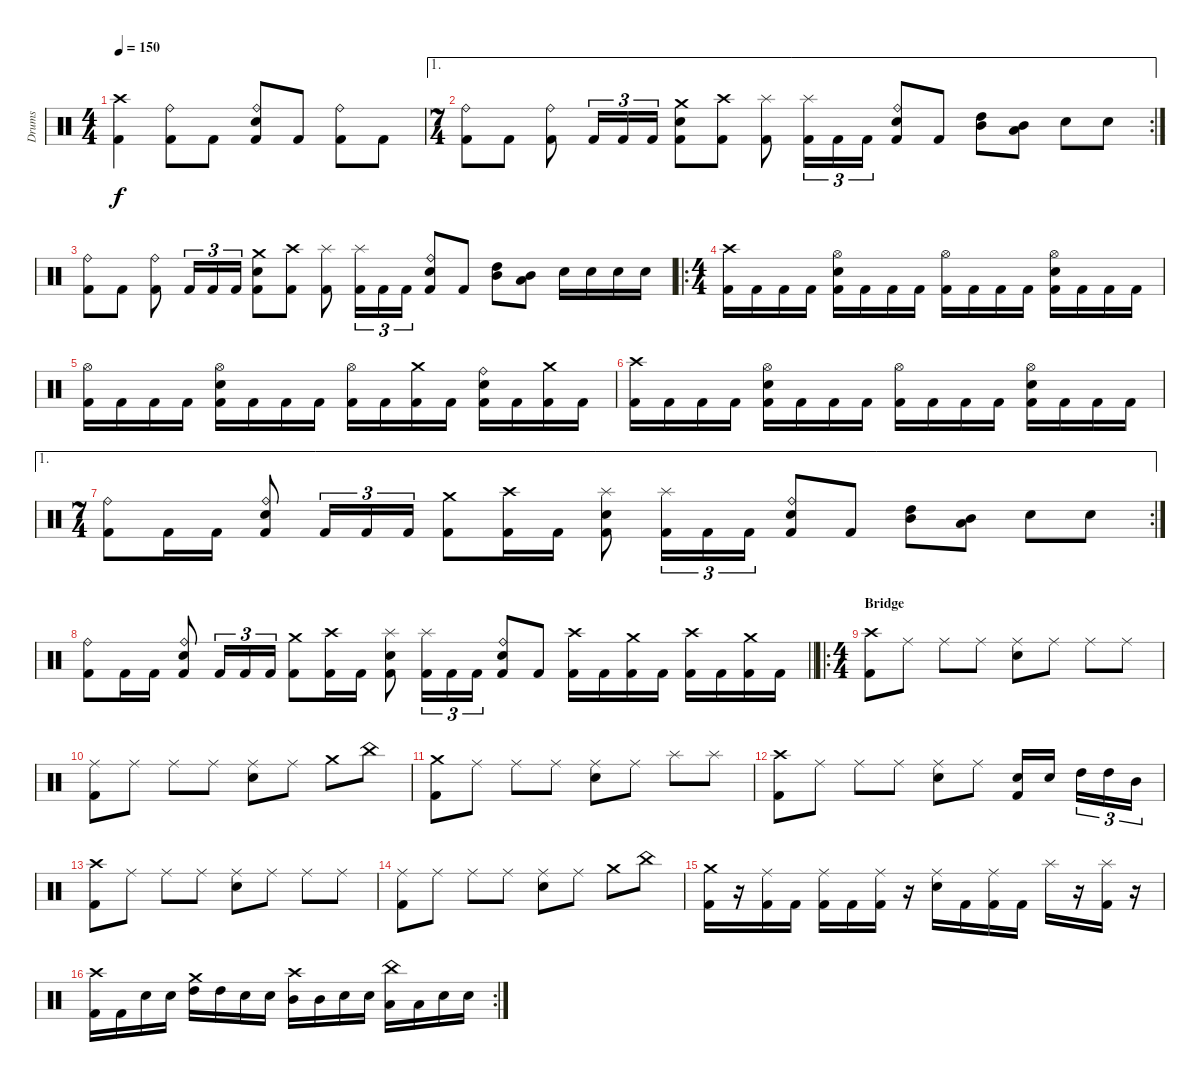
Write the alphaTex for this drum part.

\track ("Drums" "Drums") {instrument percussion}
\staff {score}
\articulation defaults
\ts (4 4)
\tempo 150
\clef neutral
\ks c
("Crash high (hit)" "Kick (hit) 2").4{dy f} ("Ride (bell)" "Kick (hit) 2").8 "Kick (hit) 2".8 ("Ride (bell)" "Snare (hit) 2" "Kick (hit) 2").8 "Kick (hit) 2".8 ("Ride (bell)" "Kick (hit) 2").8 "Kick (hit) 2".8 |
\ae 1
\rc 2
\ts (7 4)
("Ride (bell)" "Kick (hit) 2").8 "Kick (hit) 2".8 ("Ride (bell)" "Kick (hit) 2").8 "Kick (hit) 2".16{tu (3 2)} "Kick (hit) 2".16{tu (3 2)} "Kick (hit) 2".16{tu (3 2)} ("Crash medium (hit)" "Snare (hit) 2" "Kick (hit) 2").8 ("Crash high (hit)" "Kick (hit) 2").8 ("Splash (hit)" "Kick (hit) 2").8 ("Splash (hit)" "Kick (hit) 2").16{tu (3 2)} "Kick (hit) 2".16{tu (3 2)} "Kick (hit) 2".16{tu (3 2)} ("Ride (bell)" "Snare (hit) 2" "Kick (hit) 2").8 "Kick (hit) 2".8 ("Mid Tom (hit)" "High Tom (hit)").8 ("Low Tom (hit)" "Mid Tom (hit)").8 "Snare (hit) 2".8 "Snare (hit) 2".8 |
("Ride (bell)" "Kick (hit) 2").8 "Kick (hit) 2".8 ("Ride (bell)" "Kick (hit) 2").8 "Kick (hit) 2".16{tu (3 2)} "Kick (hit) 2".16{tu (3 2)} "Kick (hit) 2".16{tu (3 2)} ("Crash medium (hit)" "Snare (hit) 2" "Kick (hit) 2").8 ("Crash high (hit)" "Kick (hit) 2").8 ("Splash (hit)" "Kick (hit) 2").8 ("Splash (hit)" "Kick (hit) 2").16{tu (3 2)} "Kick (hit) 2".16{tu (3 2)} "Kick (hit) 2".16{tu (3 2)} ("Ride (bell)" "Snare (hit) 2" "Kick (hit) 2").8 "Kick (hit) 2".8 ("Mid Tom (hit)" "High Tom (hit)").8 ("Low Tom (hit)" "Mid Tom (hit)").8 "Snare (hit) 2".16 "Snare (hit) 2".16 "Snare (hit) 2".16 "Snare (hit) 2".16 |
\ro
\ts (4 4)
("Crash high (hit)" "Kick (hit) 2").16 "Kick (hit) 2".16 "Kick (hit) 2".16 "Kick (hit) 2".16 ("Hi-Hat (open)" "Snare (hit) 2" "Kick (hit) 2").16 "Kick (hit) 2".16 "Kick (hit) 2".16 "Kick (hit) 2".16 ("Hi-Hat (open)" "Kick (hit) 2").16 "Kick (hit) 2".16 "Kick (hit) 2".16 "Kick (hit) 2".16 ("Hi-Hat (open)" "Snare (hit) 2" "Kick (hit) 2").16 "Kick (hit) 2".16 "Kick (hit) 2".16 "Kick (hit) 2".16 |
("Hi-Hat (open)" "Kick (hit) 2").16 "Kick (hit) 2".16 "Kick (hit) 2".16 "Kick (hit) 2".16 ("Hi-Hat (open)" "Snare (hit) 2" "Kick (hit) 2").16 "Kick (hit) 2".16 "Kick (hit) 2".16 "Kick (hit) 2".16 ("Hi-Hat (open)" "Kick (hit) 2").16 "Kick (hit) 2".16 ("Crash medium (hit)" "Kick (hit) 2").16 "Kick (hit) 2".16 ("Ride (bell)" "Snare (hit) 2" "Kick (hit) 2").16 "Kick (hit) 2".16 ("Crash medium (hit)" "Kick (hit) 2").16 "Kick (hit) 2".16 |
("Crash high (hit)" "Kick (hit) 2").16 "Kick (hit) 2".16 "Kick (hit) 2".16 "Kick (hit) 2".16 ("Hi-Hat (open)" "Snare (hit) 2" "Kick (hit) 2").16 "Kick (hit) 2".16 "Kick (hit) 2".16 "Kick (hit) 2".16 ("Hi-Hat (open)" "Kick (hit) 2").16 "Kick (hit) 2".16 "Kick (hit) 2".16 "Kick (hit) 2".16 ("Hi-Hat (open)" "Snare (hit) 2" "Kick (hit) 2").16 "Kick (hit) 2".16 "Kick (hit) 2".16 "Kick (hit) 2".16 |
\ae 1
\rc 2
\ts (7 4)
("Ride (bell)" "Kick (hit) 2").8 "Kick (hit) 2".16 "Kick (hit) 2".16 ("Ride (bell)" "Snare (hit) 2" "Kick (hit) 2").8 "Kick (hit) 2".16{tu (3 2)} "Kick (hit) 2".16{tu (3 2)} "Kick (hit) 2".16{tu (3 2)} ("Crash medium (hit)" "Kick (hit) 2").8 ("Crash high (hit)" "Kick (hit) 2").16 "Kick (hit) 2".16 ("Splash (hit)" "Snare (hit) 2" "Kick (hit) 2").8 ("Splash (hit)" "Kick (hit) 2").16{tu (3 2)} "Kick (hit) 2".16{tu (3 2)} "Kick (hit) 2".16{tu (3 2)} ("Ride (bell)" "Snare (hit) 2" "Kick (hit) 2").8 "Kick (hit) 2".8 ("Mid Tom (hit)" "High Tom (hit)").8 ("Low Tom (hit)" "Mid Tom (hit)").8 "Snare (hit) 2".8 "Snare (hit) 2".8 |
\barLineRight lightlight
("Ride (bell)" "Kick (hit) 2").8 "Kick (hit) 2".16 "Kick (hit) 2".16 ("Ride (bell)" "Snare (hit) 2" "Kick (hit) 2").8 "Kick (hit) 2".16{tu (3 2)} "Kick (hit) 2".16{tu (3 2)} "Kick (hit) 2".16{tu (3 2)} ("Crash medium (hit)" "Kick (hit) 2").8 ("Crash high (hit)" "Kick (hit) 2").16 "Kick (hit) 2".16 ("Splash (hit)" "Snare (hit) 2" "Kick (hit) 2").8 ("Splash (hit)" "Kick (hit) 2").16{tu (3 2)} "Kick (hit) 2".16{tu (3 2)} "Kick (hit) 2".16{tu (3 2)} ("Ride (bell)" "Snare (hit) 2" "Kick (hit) 2").8 "Kick (hit) 2".8 ("Crash high (hit)" "Kick (hit) 2").16 "Kick (hit) 2".16 ("Crash medium (hit)" "Kick (hit) 2").16 "Kick (hit) 2".16 ("Crash high (hit)" "Kick (hit) 2").16 "Kick (hit) 2".16 ("Crash medium (hit)" "Kick (hit) 2").16 "Kick (hit) 2".16 |
\ro
\ts (4 4)
\section ("" "Bridge")
("Crash high (hit)" "Kick (hit) 2").8 "Ride (middle)".8 "Ride (middle)".8 "Ride (middle)".8 ("Ride (middle)" "Snare (hit) 2").8 "Ride (middle)".8 "Ride (middle)".8 "Ride (middle)".8 |
("Ride (middle)" "Kick (hit) 2").8 "Ride (middle)".8 "Ride (middle)".8 "Ride (middle)".8 ("Ride (middle)" "Snare (hit) 2").8 "Ride (middle)".8 "Crash medium (hit)".8 "China (hit)".8 |
("Crash medium (hit)" "Kick (hit) 2").8 "Ride (middle)".8 "Ride (middle)".8 "Ride (middle)".8 ("Ride (middle)" "Snare (hit) 2").8 "Ride (middle)".8 "Splash (hit)".8 "Splash (hit)".8 |
("Crash high (hit)" "Kick (hit) 2").8 "Ride (middle)".8 "Ride (middle)".8 "Ride (middle)".8 ("Ride (middle)" "Snare (hit) 2").8 "Ride (middle)".8 ("Snare (hit) 2" "Kick (hit) 2").16 "Snare (hit) 2".16{beam splitsecondary} "High Tom (hit)".16{tu (3 2)} "High Tom (hit)".16{tu (3 2)} "Mid Tom (hit)".16{tu (3 2)} |
("Crash high (hit)" "Kick (hit) 2").8 "Ride (middle)".8 "Ride (middle)".8 "Ride (middle)".8 ("Ride (middle)" "Snare (hit) 2").8 "Ride (middle)".8 "Ride (middle)".8 "Ride (middle)".8 |
("Ride (middle)" "Kick (hit) 2").8 "Ride (middle)".8 "Ride (middle)".8 "Ride (middle)".8 ("Ride (middle)" "Snare (hit) 2").8 "Ride (middle)".8 "Crash medium (hit)".8 "China (hit)".8 |
("Crash medium (hit)" "Kick (hit) 2").16 r.16 ("Ride (middle)" "Kick (hit) 2").16 "Kick (hit) 2".16 ("Ride (middle)" "Kick (hit) 2").16 "Kick (hit) 2".16 ("Ride (middle)" "Kick (hit) 2").16 r.16 ("Ride (middle)" "Snare (hit) 2").16 "Kick (hit) 2".16 ("Ride (middle)" "Kick (hit) 2").16 "Kick (hit) 2".16 "Splash (hit)".16 r.16 ("Splash (hit)" "Kick (hit) 2").16 r.16 |
\rc 2
("Crash high (hit)" "Kick (hit) 2").16 "Kick (hit) 2".16 "Snare (hit) 2".16 "Snare (hit) 2".16 ("Crash medium (hit)" "High Tom (hit)").16 "High Tom (hit)".16 "Snare (hit) 2".16 "Snare (hit) 2".16 ("Crash high (hit)" "Mid Tom (hit)").16 "Mid Tom (hit)".16 "Snare (hit) 2".16 "Snare (hit) 2".16 ("China (hit)" "Low Tom (hit)").16 "Low Tom (hit)".16 "Snare (hit) 2".16 "Snare (hit) 2".16
